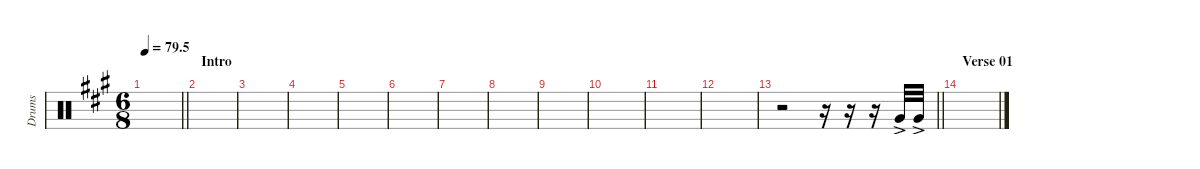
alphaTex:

\defaultSystemsLayout 4
\hideDynamics
\bracketExtendMode nobrackets
\otherSystemsTrackNameOrientation horizontal
\track ("Tom 04" "Drums") {instrument percussion}
\staff {score}
\articulation defaults
\ts (6 8)
\tempo
79.5
\accidentals auto
\clef neutral
\ottava regular
\simile none
\scale
0.474178
\barLineRight lightlight
\ks a
|
\section ("" "Intro")
\scale
0.262911 |
\scale
0.262911 |
\scale
0.333333 |
\scale
0.333333 |
\scale
0.333333 |
\scale
0.333333 |
\scale
0.333333 |
\scale
0.333333 |
\scale
0.333333 |
\scale
0.333333 |
\scale
0.333333 |
\scale
0.333333
\barLineRight lightlight
r.2 r.16 r.16 r.16 "Very Low Tom (hit)"{ac acc forcenatural}.32 "Very Low Tom (hit)"{ac acc forcenatural}.32 |
\section ("" "Verse 01")
\scale
0.333333 |
\scale
0.333333 |
\scale
0.333333
